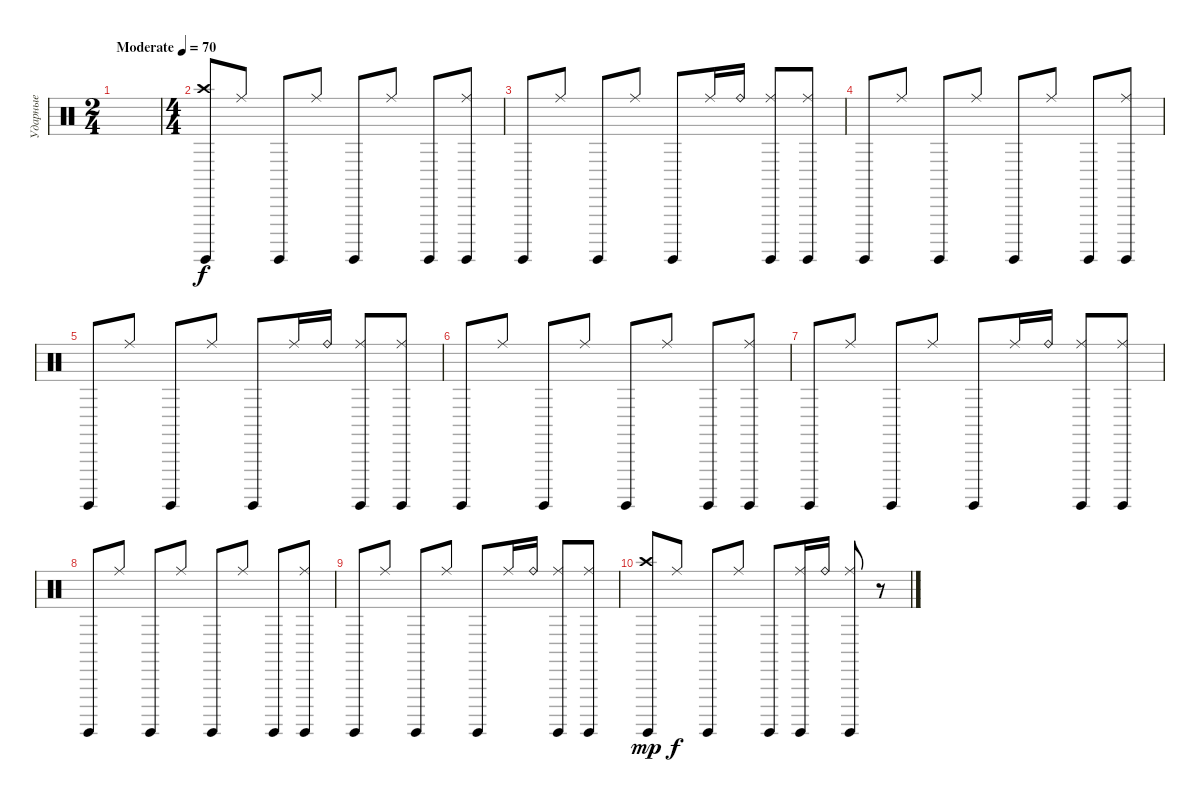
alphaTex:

\track ("Ударные" "Ударные") {instrument percussion}
\staff {score}
\articulation defaults
\ts (2 4)
\tempo (70 "Moderate")
\clef neutral
\ks c
|
\ts (4 4)
("Surdo (hit)" "Crash high (hit)").8 "Ride (middle)".8{dy f} "Surdo (hit)".8 "Ride (middle)".8 "Surdo (hit)".8 "Ride (middle)".8 "Surdo (hit)".8 ("Surdo (hit)" "Ride (middle)").8 |
"Surdo (hit)".8 "Ride (middle)".8 "Surdo (hit)".8 "Ride (middle)".8 "Surdo (hit)".8 "Ride (middle)".16 "Ride (bell)".16 ("Surdo (hit)" "Ride (middle)").8 ("Surdo (hit)" "Ride (middle)").8 |
"Surdo (hit)".8 "Ride (middle)".8 "Surdo (hit)".8 "Ride (middle)".8 "Surdo (hit)".8 "Ride (middle)".8 "Surdo (hit)".8 ("Surdo (hit)" "Ride (middle)").8 |
"Surdo (hit)".8 "Ride (middle)".8 "Surdo (hit)".8 "Ride (middle)".8 "Surdo (hit)".8 "Ride (middle)".16 "Ride (bell)".16 ("Surdo (hit)" "Ride (middle)").8 ("Surdo (hit)" "Ride (middle)").8 |
"Surdo (hit)".8 "Ride (middle)".8 "Surdo (hit)".8 "Ride (middle)".8 "Surdo (hit)".8 "Ride (middle)".8 "Surdo (hit)".8 ("Surdo (hit)" "Ride (middle)").8 |
"Surdo (hit)".8 "Ride (middle)".8 "Surdo (hit)".8 "Ride (middle)".8 "Surdo (hit)".8 "Ride (middle)".16 "Ride (bell)".16 ("Surdo (hit)" "Ride (middle)").8 ("Surdo (hit)" "Ride (middle)").8 |
"Surdo (hit)".8 "Ride (middle)".8 "Surdo (hit)".8 "Ride (middle)".8 "Surdo (hit)".8 "Ride (middle)".8 "Surdo (hit)".8 ("Surdo (hit)" "Ride (middle)").8 |
"Surdo (hit)".8 "Ride (middle)".8 "Surdo (hit)".8 "Ride (middle)".8 "Surdo (hit)".8 "Ride (middle)".16 "Ride (bell)".16 ("Surdo (hit)" "Ride (middle)").8 ("Surdo (hit)" "Ride (middle)").8 |
("Surdo (hit)" "Crash high (hit)").8{dy mp} "Ride (middle)".8{dy f} "Surdo (hit)".8 "Ride (middle)".8 "Surdo (hit)".8 ("Surdo (hit)" "Ride (middle)").16 "Ride (bell)".16 ("Surdo (hit)" "Ride (middle)").8 r.8
